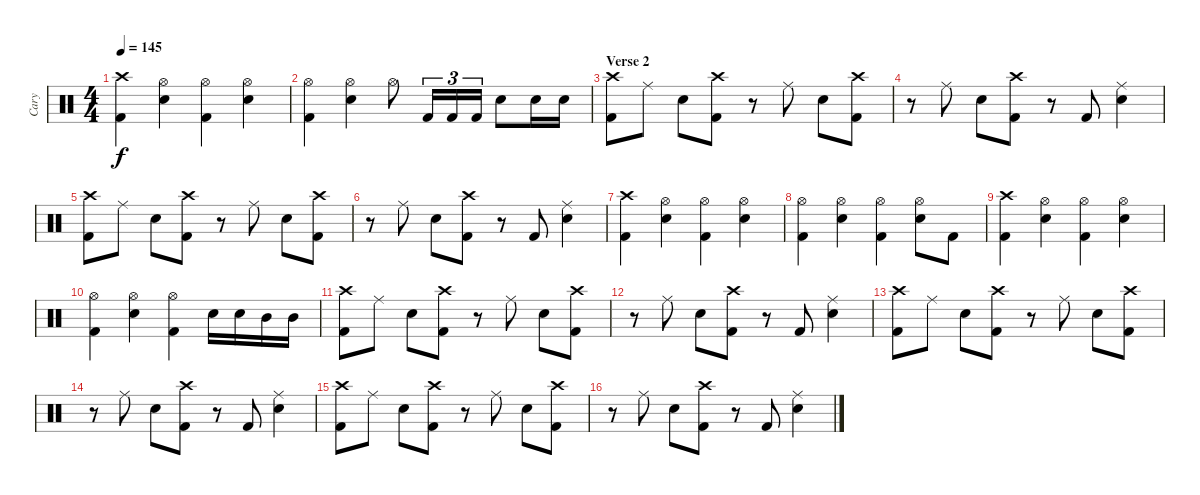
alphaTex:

\track ("Cary" "Cary") {instrument percussion}
\staff {score}
\articulation defaults
\ts (4 4)
\tempo 145
\clef neutral
\ks c
("Crash high (hit)" "Kick (hit) 2").4{dy f} ("Hi-Hat (open)" "Electric Snare (hit)").4 ("Hi-Hat (open)" "Kick (hit) 2").4 ("Hi-Hat (open)" "Electric Snare (hit)").4 |
("Hi-Hat (open)" "Kick (hit) 2").4 ("Hi-Hat (open)" "Electric Snare (hit)").4 "Hi-Hat (open)".8 "Kick (hit) 2".16{tu (3 2)} "Kick (hit) 2".16{tu (3 2)} "Kick (hit) 2".16{tu (3 2)} "Electric Snare (hit)".8 "Electric Snare (hit)".16 "Electric Snare (hit)".16 |
\section ("" "Verse 2")
("Crash high (hit)" "Kick (hit) 2").8 "Ride (middle)".8 "Electric Snare (hit)".8 ("Crash high (hit)" "Kick (hit) 2").8 r.8 "Ride (middle)".8 "Electric Snare (hit)".8 ("Crash high (hit)" "Kick (hit) 2").8 |
r.8 "Ride (middle)".8 "Electric Snare (hit)".8 ("Crash high (hit)" "Kick (hit) 2").8 r.8 "Kick (hit) 2".8 ("Ride (middle)" "Electric Snare (hit)").4 |
("Crash high (hit)" "Kick (hit) 2").8 "Ride (middle)".8 "Electric Snare (hit)".8 ("Crash high (hit)" "Kick (hit) 2").8 r.8 "Ride (middle)".8 "Electric Snare (hit)".8 ("Crash high (hit)" "Kick (hit) 2").8 |
r.8 "Ride (middle)".8 "Electric Snare (hit)".8 ("Crash high (hit)" "Kick (hit) 2").8 r.8 "Kick (hit) 2".8 ("Ride (middle)" "Electric Snare (hit)").4 |
("Crash high (hit)" "Kick (hit) 2").4 ("Hi-Hat (open)" "Electric Snare (hit)").4 ("Hi-Hat (open)" "Kick (hit) 2").4 ("Hi-Hat (open)" "Electric Snare (hit)").4 |
("Hi-Hat (open)" "Kick (hit) 2").4 ("Hi-Hat (open)" "Electric Snare (hit)").4 ("Hi-Hat (open)" "Kick (hit) 2").4 ("Hi-Hat (open)" "Electric Snare (hit)").8 "Kick (hit) 2".8 |
("Crash high (hit)" "Kick (hit) 2").4 ("Hi-Hat (open)" "Electric Snare (hit)").4 ("Hi-Hat (open)" "Kick (hit) 2").4 ("Hi-Hat (open)" "Electric Snare (hit)").4 |
("Hi-Hat (open)" "Kick (hit) 2").4 ("Hi-Hat (open)" "Electric Snare (hit)").4 ("Hi-Hat (open)" "Kick (hit) 2").4 "Electric Snare (hit)".16 "Electric Snare (hit)".16 "Mid Tom (hit)".16 "Mid Tom (hit)".16 |
("Crash high (hit)" "Kick (hit) 2").8 "Ride (middle)".8 "Electric Snare (hit)".8 ("Crash high (hit)" "Kick (hit) 2").8 r.8 "Ride (middle)".8 "Electric Snare (hit)".8 ("Crash high (hit)" "Kick (hit) 2").8 |
r.8 "Ride (middle)".8 "Electric Snare (hit)".8 ("Crash high (hit)" "Kick (hit) 2").8 r.8 "Kick (hit) 2".8 ("Ride (middle)" "Electric Snare (hit)").4 |
("Crash high (hit)" "Kick (hit) 2").8 "Ride (middle)".8 "Electric Snare (hit)".8 ("Crash high (hit)" "Kick (hit) 2").8 r.8 "Ride (middle)".8 "Electric Snare (hit)".8 ("Crash high (hit)" "Kick (hit) 2").8 |
r.8 "Ride (middle)".8 "Electric Snare (hit)".8 ("Crash high (hit)" "Kick (hit) 2").8 r.8 "Kick (hit) 2".8 ("Ride (middle)" "Electric Snare (hit)").4 |
("Crash high (hit)" "Kick (hit) 2").8 "Ride (middle)".8 "Electric Snare (hit)".8 ("Crash high (hit)" "Kick (hit) 2").8 r.8 "Ride (middle)".8 "Electric Snare (hit)".8 ("Crash high (hit)" "Kick (hit) 2").8 |
r.8 "Ride (middle)".8 "Electric Snare (hit)".8 ("Crash high (hit)" "Kick (hit) 2").8 r.8 "Kick (hit) 2".8 ("Ride (middle)" "Electric Snare (hit)").4
